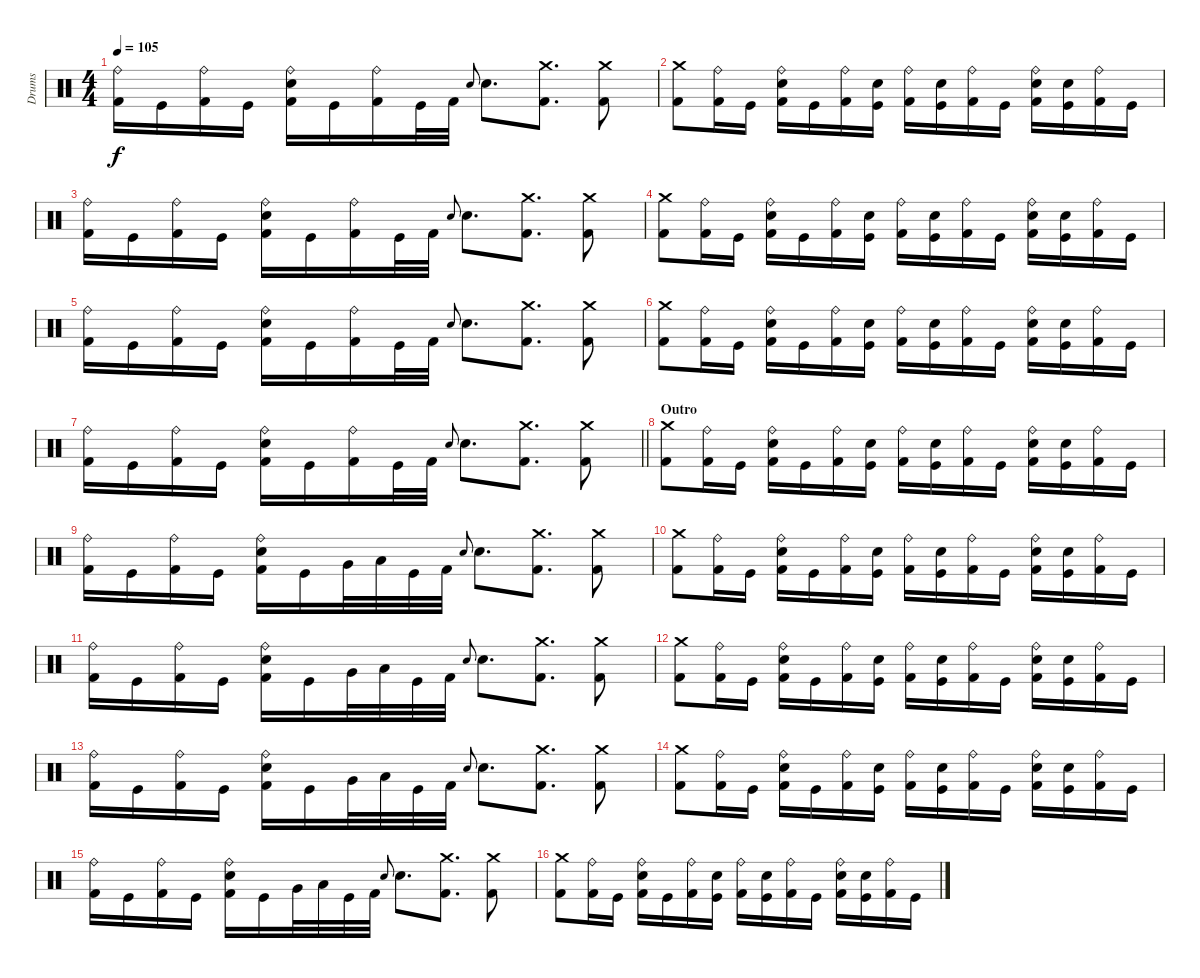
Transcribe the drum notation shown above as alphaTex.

\track ("Drums" "Drums") {instrument percussion}
\staff {score}
\articulation defaults
\ts (4 4)
\tempo 105
\clef neutral
\ks c
("Ride (bell)" "Kick (hit) 2").16{dy f} "Kick (hit)".16 ("Ride (bell)" "Kick (hit) 2").16 "Kick (hit)".16 ("Ride (bell)" "Snare (hit) 2" "Kick (hit) 2").16 "Kick (hit)".16 ("Ride (bell)" "Kick (hit) 2").16 "Kick (hit)".32 "Kick (hit) 2".32 "Electric Snare (hit)".8{gr onbeat} "Snare (hit) 2".8{d} ("Crash medium (hit)" "Kick (hit) 2").8{d} ("Crash medium (hit)" "Kick (hit) 2").8 |
("Crash medium (hit)" "Kick (hit) 2").8 ("Ride (bell)" "Kick (hit) 2").16 "Kick (hit)".16 ("Ride (bell)" "Snare (hit) 2" "Kick (hit) 2").16 "Kick (hit)".16 ("Ride (bell)" "Kick (hit) 2").16 ("Snare (hit) 2" "Kick (hit)").16 ("Ride (bell)" "Kick (hit) 2").16 ("Snare (hit) 2" "Kick (hit)").16 ("Ride (bell)" "Kick (hit) 2").16 "Kick (hit)".16 ("Ride (bell)" "Snare (hit) 2" "Kick (hit) 2").16 ("Snare (hit) 2" "Kick (hit)").16 ("Ride (bell)" "Kick (hit) 2").16 "Kick (hit)".16 |
("Ride (bell)" "Kick (hit) 2").16 "Kick (hit)".16 ("Ride (bell)" "Kick (hit) 2").16 "Kick (hit)".16 ("Ride (bell)" "Snare (hit) 2" "Kick (hit) 2").16 "Kick (hit)".16 ("Ride (bell)" "Kick (hit) 2").16 "Kick (hit)".32 "Kick (hit) 2".32 "Electric Snare (hit)".8{gr onbeat} "Snare (hit) 2".8{d} ("Crash medium (hit)" "Kick (hit) 2").8{d} ("Crash medium (hit)" "Kick (hit) 2").8 |
("Crash medium (hit)" "Kick (hit) 2").8 ("Ride (bell)" "Kick (hit) 2").16 "Kick (hit)".16 ("Ride (bell)" "Snare (hit) 2" "Kick (hit) 2").16 "Kick (hit)".16 ("Ride (bell)" "Kick (hit) 2").16 ("Snare (hit) 2" "Kick (hit)").16 ("Ride (bell)" "Kick (hit) 2").16 ("Snare (hit) 2" "Kick (hit)").16 ("Ride (bell)" "Kick (hit) 2").16 "Kick (hit)".16 ("Ride (bell)" "Snare (hit) 2" "Kick (hit) 2").16 ("Snare (hit) 2" "Kick (hit)").16 ("Ride (bell)" "Kick (hit) 2").16 "Kick (hit)".16 |
("Ride (bell)" "Kick (hit) 2").16 "Kick (hit)".16 ("Ride (bell)" "Kick (hit) 2").16 "Kick (hit)".16 ("Ride (bell)" "Snare (hit) 2" "Kick (hit) 2").16 "Kick (hit)".16 ("Ride (bell)" "Kick (hit) 2").16 "Kick (hit)".32 "Kick (hit) 2".32 "Electric Snare (hit)".8{gr onbeat} "Snare (hit) 2".8{d} ("Crash medium (hit)" "Kick (hit) 2").8{d} ("Crash medium (hit)" "Kick (hit) 2").8 |
("Crash medium (hit)" "Kick (hit) 2").8 ("Ride (bell)" "Kick (hit) 2").16 "Kick (hit)".16 ("Ride (bell)" "Snare (hit) 2" "Kick (hit) 2").16 "Kick (hit)".16 ("Ride (bell)" "Kick (hit) 2").16 ("Snare (hit) 2" "Kick (hit)").16 ("Ride (bell)" "Kick (hit) 2").16 ("Snare (hit) 2" "Kick (hit)").16 ("Ride (bell)" "Kick (hit) 2").16 "Kick (hit)".16 ("Ride (bell)" "Snare (hit) 2" "Kick (hit) 2").16 ("Snare (hit) 2" "Kick (hit)").16 ("Ride (bell)" "Kick (hit) 2").16 "Kick (hit)".16 |
\barLineRight lightlight
("Ride (bell)" "Kick (hit) 2").16 "Kick (hit)".16 ("Ride (bell)" "Kick (hit) 2").16 "Kick (hit)".16 ("Ride (bell)" "Snare (hit) 2" "Kick (hit) 2").16 "Kick (hit)".16 ("Ride (bell)" "Kick (hit) 2").16 "Kick (hit)".32 "Kick (hit) 2".32 "Electric Snare (hit)".8{gr onbeat} "Snare (hit) 2".8{d} ("Crash medium (hit)" "Kick (hit) 2").8{d} ("Crash medium (hit)" "Kick (hit) 2").8 |
\section ("" "Outro")
("Crash medium (hit)" "Kick (hit) 2").8 ("Ride (bell)" "Kick (hit) 2").16 "Kick (hit)".16 ("Ride (bell)" "Snare (hit) 2" "Kick (hit) 2").16 "Kick (hit)".16 ("Ride (bell)" "Kick (hit) 2").16 ("Snare (hit) 2" "Kick (hit)").16 ("Ride (bell)" "Kick (hit) 2").16 ("Snare (hit) 2" "Kick (hit)").16 ("Ride (bell)" "Kick (hit) 2").16 "Kick (hit)".16 ("Ride (bell)" "Snare (hit) 2" "Kick (hit) 2").16 ("Snare (hit) 2" "Kick (hit)").16 ("Ride (bell)" "Kick (hit) 2").16 "Kick (hit)".16 |
("Ride (bell)" "Kick (hit) 2").16 "Kick (hit)".16 ("Ride (bell)" "Kick (hit) 2").16 "Kick (hit)".16 ("Ride (bell)" "Snare (hit) 2" "Kick (hit) 2").16 "Kick (hit)".16 "Very Low Tom (hit)".32 "Low Floor Tom (hit)".32 "Kick (hit)".32 "Kick (hit) 2".32 "Electric Snare (hit)".8{gr onbeat} "Snare (hit) 2".8{d} ("Crash medium (hit)" "Kick (hit) 2").8{d} ("Crash medium (hit)" "Kick (hit) 2").8 |
("Crash medium (hit)" "Kick (hit) 2").8 ("Ride (bell)" "Kick (hit) 2").16 "Kick (hit)".16 ("Ride (bell)" "Snare (hit) 2" "Kick (hit) 2").16 "Kick (hit)".16 ("Ride (bell)" "Kick (hit) 2").16 ("Snare (hit) 2" "Kick (hit)").16 ("Ride (bell)" "Kick (hit) 2").16 ("Snare (hit) 2" "Kick (hit)").16 ("Ride (bell)" "Kick (hit) 2").16 "Kick (hit)".16 ("Ride (bell)" "Snare (hit) 2" "Kick (hit) 2").16 ("Snare (hit) 2" "Kick (hit)").16 ("Ride (bell)" "Kick (hit) 2").16 "Kick (hit)".16 |
("Ride (bell)" "Kick (hit) 2").16 "Kick (hit)".16 ("Ride (bell)" "Kick (hit) 2").16 "Kick (hit)".16 ("Ride (bell)" "Snare (hit) 2" "Kick (hit) 2").16 "Kick (hit)".16 "Very Low Tom (hit)".32 "Low Floor Tom (hit)".32 "Kick (hit)".32 "Kick (hit) 2".32 "Electric Snare (hit)".8{gr onbeat} "Snare (hit) 2".8{d} ("Crash medium (hit)" "Kick (hit) 2").8{d} ("Crash medium (hit)" "Kick (hit) 2").8 |
("Crash medium (hit)" "Kick (hit) 2").8 ("Ride (bell)" "Kick (hit) 2").16 "Kick (hit)".16 ("Ride (bell)" "Snare (hit) 2" "Kick (hit) 2").16 "Kick (hit)".16 ("Ride (bell)" "Kick (hit) 2").16 ("Snare (hit) 2" "Kick (hit)").16 ("Ride (bell)" "Kick (hit) 2").16 ("Snare (hit) 2" "Kick (hit)").16 ("Ride (bell)" "Kick (hit) 2").16 "Kick (hit)".16 ("Ride (bell)" "Snare (hit) 2" "Kick (hit) 2").16 ("Snare (hit) 2" "Kick (hit)").16 ("Ride (bell)" "Kick (hit) 2").16 "Kick (hit)".16 |
("Ride (bell)" "Kick (hit) 2").16 "Kick (hit)".16 ("Ride (bell)" "Kick (hit) 2").16 "Kick (hit)".16 ("Ride (bell)" "Snare (hit) 2" "Kick (hit) 2").16 "Kick (hit)".16 "Very Low Tom (hit)".32 "Low Floor Tom (hit)".32 "Kick (hit)".32 "Kick (hit) 2".32 "Electric Snare (hit)".8{gr onbeat} "Snare (hit) 2".8{d} ("Crash medium (hit)" "Kick (hit) 2").8{d} ("Crash medium (hit)" "Kick (hit) 2").8 |
("Crash medium (hit)" "Kick (hit) 2").8 ("Ride (bell)" "Kick (hit) 2").16 "Kick (hit)".16 ("Ride (bell)" "Snare (hit) 2" "Kick (hit) 2").16 "Kick (hit)".16 ("Ride (bell)" "Kick (hit) 2").16 ("Snare (hit) 2" "Kick (hit)").16 ("Ride (bell)" "Kick (hit) 2").16 ("Snare (hit) 2" "Kick (hit)").16 ("Ride (bell)" "Kick (hit) 2").16 "Kick (hit)".16 ("Ride (bell)" "Snare (hit) 2" "Kick (hit) 2").16 ("Snare (hit) 2" "Kick (hit)").16 ("Ride (bell)" "Kick (hit) 2").16 "Kick (hit)".16 |
("Ride (bell)" "Kick (hit) 2").16 "Kick (hit)".16 ("Ride (bell)" "Kick (hit) 2").16 "Kick (hit)".16 ("Ride (bell)" "Snare (hit) 2" "Kick (hit) 2").16 "Kick (hit)".16 "Very Low Tom (hit)".32 "Low Floor Tom (hit)".32 "Kick (hit)".32 "Kick (hit) 2".32 "Electric Snare (hit)".8{gr onbeat} "Snare (hit) 2".8{d} ("Crash medium (hit)" "Kick (hit) 2").8{d} ("Crash medium (hit)" "Kick (hit) 2").8 |
("Crash medium (hit)" "Kick (hit) 2").8 ("Ride (bell)" "Kick (hit) 2").16 "Kick (hit)".16 ("Ride (bell)" "Snare (hit) 2" "Kick (hit) 2").16 "Kick (hit)".16 ("Ride (bell)" "Kick (hit) 2").16 ("Snare (hit) 2" "Kick (hit)").16 ("Ride (bell)" "Kick (hit) 2").16 ("Snare (hit) 2" "Kick (hit)").16 ("Ride (bell)" "Kick (hit) 2").16 "Kick (hit)".16 ("Ride (bell)" "Snare (hit) 2" "Kick (hit) 2").16 ("Snare (hit) 2" "Kick (hit)").16 ("Ride (bell)" "Kick (hit) 2").16 "Kick (hit)".16
